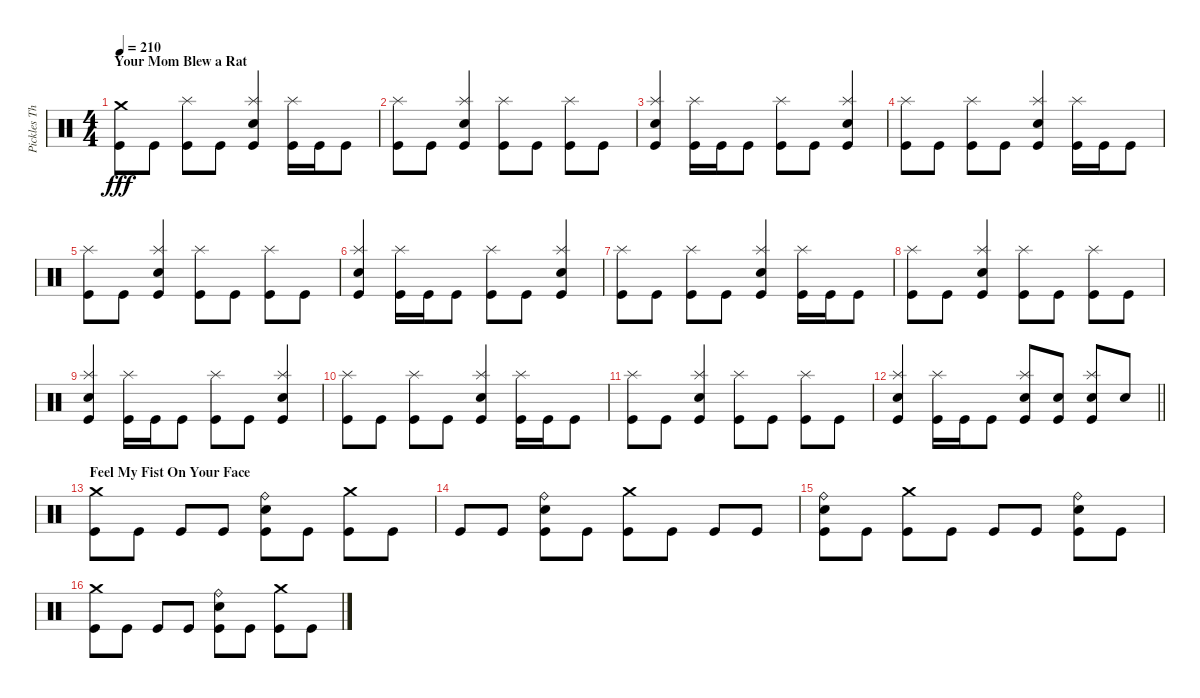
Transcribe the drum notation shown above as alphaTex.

\track ("Pickles The Drummer (Drums)" "Pickles Th") {instrument percussion}
\staff {score}
\articulation defaults
\ts (4 4)
\section ("" "Your Mom Blew a Rat")
\tempo 210
\clef neutral
\ks c
("Crash medium (hit)" "Kick (hit)").8{dy fff} "Kick (hit)".8 ("Splash (hit)" "Kick (hit)").8 "Kick (hit)".8 ("Splash (hit)" "Snare (hit) 2" "Kick (hit)").4 ("Splash (hit)" "Kick (hit)").16 "Kick (hit)".16 "Kick (hit)".8 |
("Splash (hit)" "Kick (hit)").8 "Kick (hit)".8 ("Splash (hit)" "Snare (hit) 2" "Kick (hit)").4 ("Splash (hit)" "Kick (hit)").8 "Kick (hit)".8 ("Splash (hit)" "Kick (hit)").8 "Kick (hit)".8 |
("Splash (hit)" "Snare (hit) 2" "Kick (hit)").4 ("Splash (hit)" "Kick (hit)").16 "Kick (hit)".16 "Kick (hit)".8 ("Splash (hit)" "Kick (hit)").8 "Kick (hit)".8 ("Splash (hit)" "Snare (hit) 2" "Kick (hit)").4 |
("Splash (hit)" "Kick (hit)").8 "Kick (hit)".8 ("Splash (hit)" "Kick (hit)").8 "Kick (hit)".8 ("Splash (hit)" "Snare (hit) 2" "Kick (hit)").4 ("Splash (hit)" "Kick (hit)").16 "Kick (hit)".16 "Kick (hit)".8 |
("Splash (hit)" "Kick (hit)").8 "Kick (hit)".8 ("Splash (hit)" "Snare (hit) 2" "Kick (hit)").4 ("Splash (hit)" "Kick (hit)").8 "Kick (hit)".8 ("Splash (hit)" "Kick (hit)").8 "Kick (hit)".8 |
("Splash (hit)" "Snare (hit) 2" "Kick (hit)").4 ("Splash (hit)" "Kick (hit)").16 "Kick (hit)".16 "Kick (hit)".8 ("Splash (hit)" "Kick (hit)").8 "Kick (hit)".8 ("Splash (hit)" "Snare (hit) 2" "Kick (hit)").4 |
("Splash (hit)" "Kick (hit)").8 "Kick (hit)".8 ("Splash (hit)" "Kick (hit)").8 "Kick (hit)".8 ("Splash (hit)" "Snare (hit) 2" "Kick (hit)").4 ("Splash (hit)" "Kick (hit)").16 "Kick (hit)".16 "Kick (hit)".8 |
("Splash (hit)" "Kick (hit)").8 "Kick (hit)".8 ("Splash (hit)" "Snare (hit) 2" "Kick (hit)").4 ("Splash (hit)" "Kick (hit)").8 "Kick (hit)".8 ("Splash (hit)" "Kick (hit)").8 "Kick (hit)".8 |
("Splash (hit)" "Snare (hit) 2" "Kick (hit)").4 ("Splash (hit)" "Kick (hit)").16 "Kick (hit)".16 "Kick (hit)".8 ("Splash (hit)" "Kick (hit)").8 "Kick (hit)".8 ("Splash (hit)" "Snare (hit) 2" "Kick (hit)").4 |
("Splash (hit)" "Kick (hit)").8 "Kick (hit)".8 ("Splash (hit)" "Kick (hit)").8 "Kick (hit)".8 ("Splash (hit)" "Snare (hit) 2" "Kick (hit)").4 ("Splash (hit)" "Kick (hit)").16 "Kick (hit)".16 "Kick (hit)".8 |
("Splash (hit)" "Kick (hit)").8 "Kick (hit)".8 ("Splash (hit)" "Snare (hit) 2" "Kick (hit)").4 ("Splash (hit)" "Kick (hit)").8 "Kick (hit)".8 ("Splash (hit)" "Kick (hit)").8 "Kick (hit)".8 |
\barLineRight lightlight
("Splash (hit)" "Snare (hit) 2" "Kick (hit)").4 ("Splash (hit)" "Kick (hit)").16 "Kick (hit)".16 "Kick (hit)".8 ("Splash (hit)" "Snare (hit) 2" "Kick (hit)").8 ("Snare (hit) 2" "Kick (hit)").8 ("Splash (hit)" "Snare (hit) 2" "Kick (hit)").8 "Snare (hit) 2".8 |
\section ("" "Feel My Fist On Your Face")
("Crash medium (hit)" "Kick (hit)").8 "Kick (hit)".8 "Kick (hit)".8 "Kick (hit)".8 ("Ride (bell)" "Snare (hit) 2" "Kick (hit)").8 "Kick (hit)".8 ("Crash medium (hit)" "Kick (hit)").8 "Kick (hit)".8 |
"Kick (hit)".8 "Kick (hit)".8 ("Ride (bell)" "Snare (hit) 2" "Kick (hit)").8 "Kick (hit)".8 ("Crash medium (hit)" "Kick (hit)").8 "Kick (hit)".8 "Kick (hit)".8 "Kick (hit)".8 |
("Ride (bell)" "Snare (hit) 2" "Kick (hit)").8 "Kick (hit)".8 ("Crash medium (hit)" "Kick (hit)").8 "Kick (hit)".8 "Kick (hit)".8 "Kick (hit)".8 ("Ride (bell)" "Snare (hit) 2" "Kick (hit)").8 "Kick (hit)".8 |
("Crash medium (hit)" "Kick (hit)").8 "Kick (hit)".8 "Kick (hit)".8 "Kick (hit)".8 ("Ride (bell)" "Snare (hit) 2" "Kick (hit)").8 "Kick (hit)".8 ("Crash medium (hit)" "Kick (hit)").8 "Kick (hit)".8
